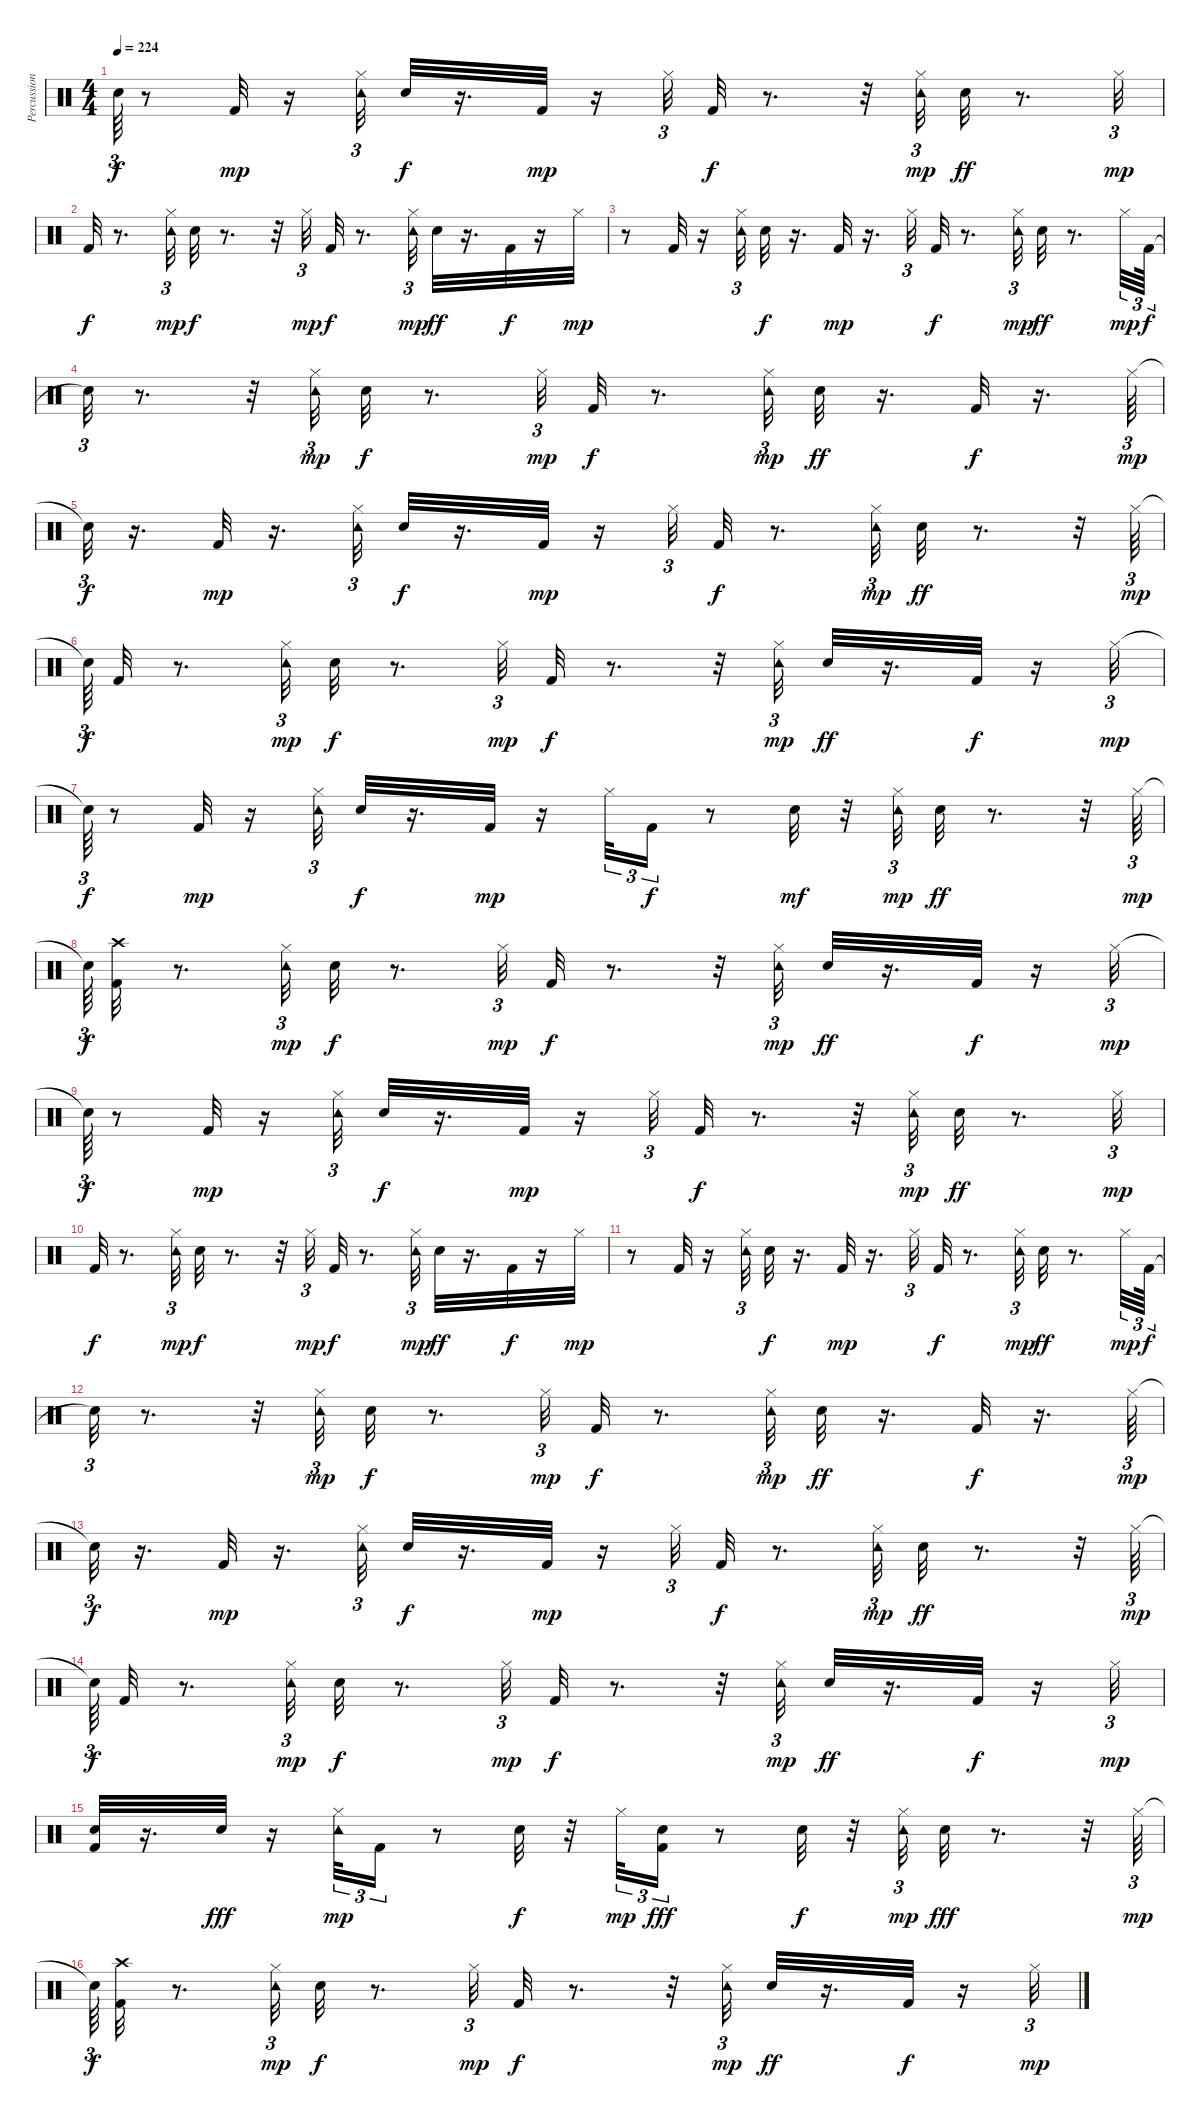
\track ("Percussion" "Percussion") {instrument percussion}
\staff {score}
\articulation defaults
\ts (4 4)
\tempo 224
\clef neutral
\ks c "Snare (hit)"{t}.64{tu (3 2) dy f}
r.8 "Kick (hit) 2".32{dy mp} r.16 ("Tambourine (hit)" "Hi-Hat (closed)").32{tu (3 2)} "Snare (hit) 2".32{dy f} r.16{d} "Kick (hit) 2".32{dy mp} r.16 "Hi-Hat (closed)".32{tu (3 2)} "Kick (hit) 2".32{dy f} r.8{d} r.32 ("Tambourine (hit)" "Hi-Hat (closed)").32{tu (3 2) dy mp} "Snare (hit) 2".32{dy ff} r.8{d} "Hi-Hat (closed)".32{tu (3 2) dy mp} |
"Kick (hit) 2".32{dy f} r.8{d} ("Tambourine (hit)" "Hi-Hat (closed)").32{tu (3 2) dy mp} "Snare (hit) 2".32{dy f} r.8{d} r.32 "Hi-Hat (closed)".32{tu (3 2) dy mp} "Kick (hit) 2".32{dy f} r.8{d} ("Tambourine (hit)" "Hi-Hat (closed)").32{tu (3 2) dy mp} "Snare (hit) 2".32{dy ff} r.16{d} "Kick (hit) 2".32{dy f} r.16 "Hi-Hat (closed)".32{dy mp} |
r.8 "Kick (hit) 2".32 r.16 ("Tambourine (hit)" "Hi-Hat (closed)").32{tu (3 2)} "Snare (hit) 2".32{dy f} r.16{d} "Kick (hit) 2".32{dy mp} r.16{d} "Hi-Hat (closed)".32{tu (3 2)} "Kick (hit) 2".32{dy f} r.8{d} ("Tambourine (hit)" "Hi-Hat (closed)").32{tu (3 2) dy mp} "Snare (hit) 2".32{dy ff} r.8{d} "Hi-Hat (closed)".32{tu (3 2) dy mp} "Kick (hit) 2".64{tu (3 2) dy f} |
"Snare (hit)"{t}.32{tu (3 2)} r.8{d} r.32 ("Tambourine (hit)" "Hi-Hat (closed)").32{tu (3 2) dy mp} "Snare (hit) 2".32{dy f} r.8{d} "Hi-Hat (closed)".32{tu (3 2) dy mp} "Kick (hit) 2".32{dy f} r.8{d} ("Tambourine (hit)" "Hi-Hat (closed)").32{tu (3 2) dy mp} "Snare (hit) 2".32{dy ff} r.16{d} "Kick (hit) 2".32{dy f} r.16{d} "Hi-Hat (closed)".64{tu (3 2) dy mp} |
"Snare (hit)"{t}.32{tu (3 2) dy f} r.16{d} "Kick (hit) 2".32{dy mp} r.16{d} ("Tambourine (hit)" "Hi-Hat (closed)").32{tu (3 2)} "Snare (hit) 2".32{dy f} r.16{d} "Kick (hit) 2".32{dy mp} r.16 "Hi-Hat (closed)".32{tu (3 2)} "Kick (hit) 2".32{dy f} r.8{d} ("Tambourine (hit)" "Hi-Hat (closed)").32{tu (3 2) dy mp} "Snare (hit) 2".32{dy ff} r.8{d} r.32 "Hi-Hat (closed)".64{tu (3 2) dy mp} |
"Snare (hit)"{t}.64{tu (3 2) dy f} "Kick (hit) 2".32 r.8{d} ("Tambourine (hit)" "Hi-Hat (closed)").32{tu (3 2) dy mp} "Snare (hit) 2".32{dy f} r.8{d} "Hi-Hat (closed)".32{tu (3 2) dy mp} "Kick (hit) 2".32{dy f} r.8{d} r.32 ("Tambourine (hit)" "Hi-Hat (closed)").32{tu (3 2) dy mp} "Snare (hit) 2".32{dy ff} r.16{d} "Kick (hit) 2".32{dy f} r.16 "Hi-Hat (closed)".32{tu (3 2) dy mp} |
"Snare (hit)"{t}.64{tu (3 2) dy f} r.8 "Kick (hit) 2".32{dy mp} r.16 ("Tambourine (hit)" "Hi-Hat (closed)").32{tu (3 2)} "Snare (hit) 2".32{dy f} r.16{d} "Kick (hit) 2".32{dy mp} r.16 "Hi-Hat (closed)".32{tu (3 2)} "Kick (hit) 2".16{tu (3 2) dy f} r.8 "Snare (hit) 2".32{dy mf} r.32 ("Tambourine (hit)" "Hi-Hat (closed)").32{tu (3 2) dy mp} "Snare (hit) 2".32{dy ff} r.8{d} r.32 "Hi-Hat (closed)".64{tu (3 2) dy mp} |
"Snare (hit)"{t}.64{tu (3 2) dy f} ("Kick (hit) 2" "Crash high (hit)").32 r.8{d} ("Tambourine (hit)" "Hi-Hat (closed)").32{tu (3 2) dy mp} "Snare (hit) 2".32{dy f} r.8{d} "Hi-Hat (closed)".32{tu (3 2) dy mp} "Kick (hit) 2".32{dy f} r.8{d} r.32 ("Tambourine (hit)" "Hi-Hat (closed)").32{tu (3 2) dy mp} "Snare (hit) 2".32{dy ff} r.16{d} "Kick (hit) 2".32{dy f} r.16 "Hi-Hat (closed)".32{tu (3 2) dy mp} |
"Snare (hit)"{t}.64{tu (3 2) dy f} r.8 "Kick (hit) 2".32{dy mp} r.16 ("Tambourine (hit)" "Hi-Hat (closed)").32{tu (3 2)} "Snare (hit) 2".32{dy f} r.16{d} "Kick (hit) 2".32{dy mp} r.16 "Hi-Hat (closed)".32{tu (3 2)} "Kick (hit) 2".32{dy f} r.8{d} r.32 ("Tambourine (hit)" "Hi-Hat (closed)").32{tu (3 2) dy mp} "Snare (hit) 2".32{dy ff} r.8{d} "Hi-Hat (closed)".32{tu (3 2) dy mp} |
"Kick (hit) 2".32{dy f} r.8{d} ("Tambourine (hit)" "Hi-Hat (closed)").32{tu (3 2) dy mp} "Snare (hit) 2".32{dy f} r.8{d} r.32 "Hi-Hat (closed)".32{tu (3 2) dy mp} "Kick (hit) 2".32{dy f} r.8{d} ("Tambourine (hit)" "Hi-Hat (closed)").32{tu (3 2) dy mp} "Snare (hit) 2".32{dy ff} r.16{d} "Kick (hit) 2".32{dy f} r.16 "Hi-Hat (closed)".32{dy mp} |
r.8 "Kick (hit) 2".32 r.16 ("Tambourine (hit)" "Hi-Hat (closed)").32{tu (3 2)} "Snare (hit) 2".32{dy f} r.16{d} "Kick (hit) 2".32{dy mp} r.16{d} "Hi-Hat (closed)".32{tu (3 2)} "Kick (hit) 2".32{dy f} r.8{d} ("Tambourine (hit)" "Hi-Hat (closed)").32{tu (3 2) dy mp} "Snare (hit) 2".32{dy ff} r.8{d} "Hi-Hat (closed)".32{tu (3 2) dy mp} "Kick (hit) 2".64{tu (3 2) dy f} |
"Snare (hit)"{t}.32{tu (3 2)} r.8{d} r.32 ("Tambourine (hit)" "Hi-Hat (closed)").32{tu (3 2) dy mp} "Snare (hit) 2".32{dy f} r.8{d} "Hi-Hat (closed)".32{tu (3 2) dy mp} "Kick (hit) 2".32{dy f} r.8{d} ("Tambourine (hit)" "Hi-Hat (closed)").32{tu (3 2) dy mp} "Snare (hit) 2".32{dy ff} r.16{d} "Kick (hit) 2".32{dy f} r.16{d} "Hi-Hat (closed)".64{tu (3 2) dy mp} |
"Snare (hit)"{t}.32{tu (3 2) dy f} r.16{d} "Kick (hit) 2".32{dy mp} r.16{d} ("Tambourine (hit)" "Hi-Hat (closed)").32{tu (3 2)} "Snare (hit) 2".32{dy f} r.16{d} "Kick (hit) 2".32{dy mp} r.16 "Hi-Hat (closed)".32{tu (3 2)} "Kick (hit) 2".32{dy f} r.8{d} ("Tambourine (hit)" "Hi-Hat (closed)").32{tu (3 2) dy mp} "Snare (hit) 2".32{dy ff} r.8{d} r.32 "Hi-Hat (closed)".64{tu (3 2) dy mp} |
"Snare (hit)"{t}.64{tu (3 2) dy f} "Kick (hit) 2".32 r.8{d} ("Tambourine (hit)" "Hi-Hat (closed)").32{tu (3 2) dy mp} "Snare (hit) 2".32{dy f} r.8{d} "Hi-Hat (closed)".32{tu (3 2) dy mp} "Kick (hit) 2".32{dy f} r.8{d} r.32 ("Tambourine (hit)" "Hi-Hat (closed)").32{tu (3 2) dy mp} "Snare (hit) 2".32{dy ff} r.16{d} "Kick (hit) 2".32{dy f} r.16 "Hi-Hat (closed)".32{tu (3 2) dy mp} |
("Kick (hit) 2" "Snare (hit) 2").32 r.16{d} "Snare (hit) 2".32{dy fff} r.16 ("Tambourine (hit)" "Hi-Hat (closed)").32{tu (3 2) dy mp} "Kick (hit) 2".16{tu (3 2)} r.8 "Snare (hit) 2".32{dy f} r.32 "Hi-Hat (closed)".32{tu (3 2) dy mp} ("Kick (hit) 2" "Snare (hit) 2").16{tu (3 2) dy fff} r.8 "Snare (hit) 2".32{dy f} r.32 ("Tambourine (hit)" "Hi-Hat (closed)").32{tu (3 2) dy mp} "Snare (hit) 2".32{dy fff} r.8{d} r.32 "Hi-Hat (closed)".64{tu (3 2) dy mp} |
"Snare (hit)"{t}.64{tu (3 2) dy f} ("Kick (hit) 2" "Crash high (hit)").32 r.8{d} ("Tambourine (hit)" "Hi-Hat (closed)").32{tu (3 2) dy mp} "Snare (hit) 2".32{dy f} r.8{d} "Hi-Hat (closed)".32{tu (3 2) dy mp} "Kick (hit) 2".32{dy f} r.8{d} r.32 ("Tambourine (hit)" "Hi-Hat (closed)").32{tu (3 2) dy mp} "Snare (hit) 2".32{dy ff} r.16{d} "Kick (hit) 2".32{dy f} r.16 "Hi-Hat (closed)".32{tu (3 2) dy mp}
